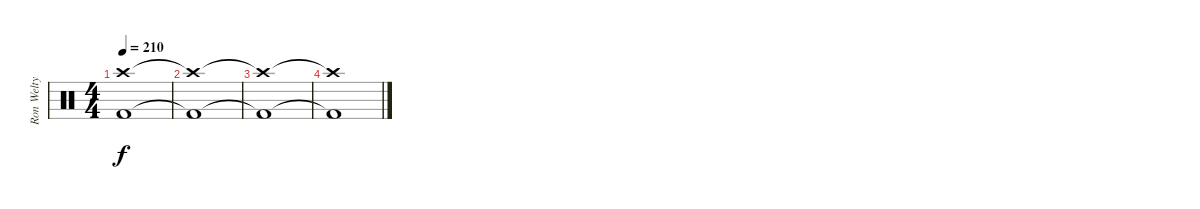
\track ("Ron Welty" "Ron Welty") {instrument percussion}
\staff {score}
\articulation defaults
\ts (4 4)
\tempo 210
\clef neutral
\ks c
("Crash high (hit)"{t} "Kick (hit) 2"{t}).1{dy f} |
("Crash high (hit)"{t} "Kick (hit) 2"{t}).1 |
("Crash high (hit)"{t} "Kick (hit) 2"{t}).1 |
("Crash high (hit)"{t} "Kick (hit) 2"{t}).1
